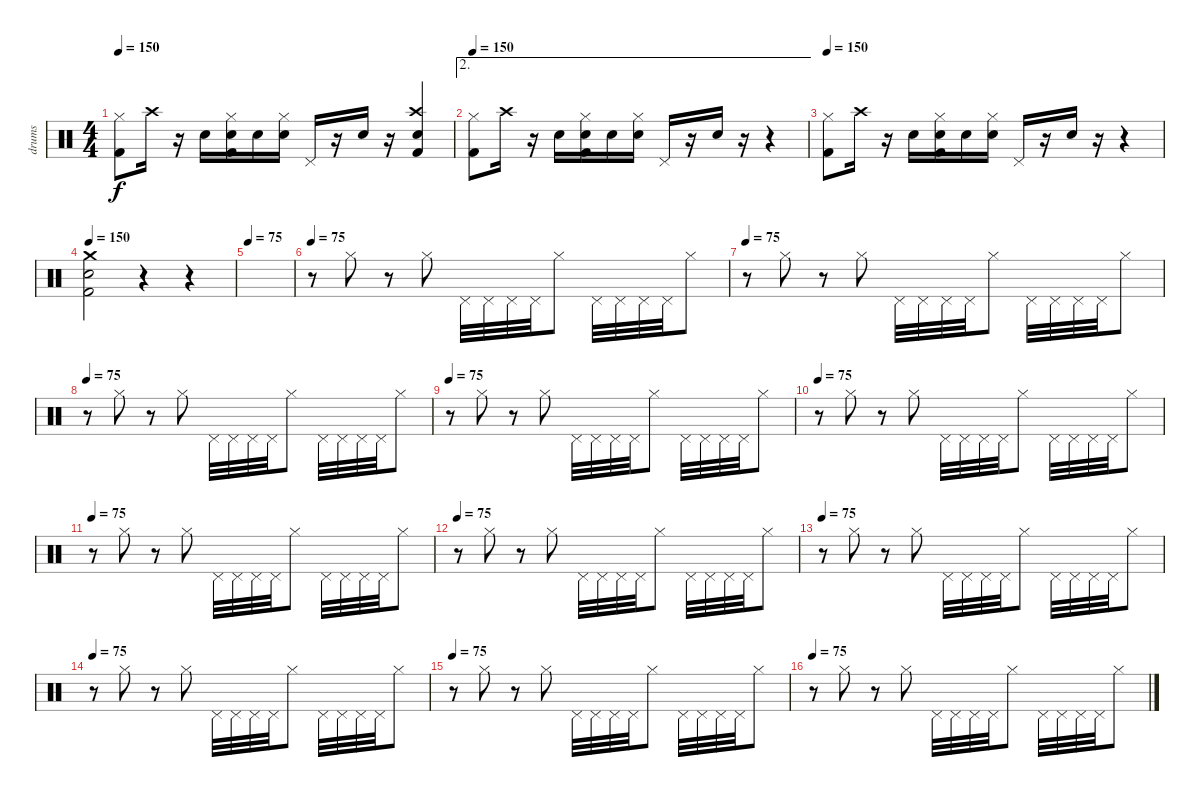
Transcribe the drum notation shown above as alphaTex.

\track ("drums" "drums") {instrument percussion}
\staff {score}
\articulation defaults
\ts (4 4)
\tempo 150
\clef neutral
\ks c
("Hi-Hat (closed)" "Kick (hit) 2").8{dy f} "Crash high (hit)".16 r.16 "Snare (hit) 2".16 ("Hi-Hat (closed)" "Snare (hit) 2" "Kick (hit) 2").16 "Snare (hit) 2".16 ("Hi-Hat (closed)" "Snare (hit) 2").16 "Pedal Hi-Hat (hit)".16 r.16 "Snare (hit) 2".16 r.16 ("Crash high (hit)" "Snare (hit) 2" "Kick (hit) 2").4 |
\ae 2
\tempo 150
("Hi-Hat (closed)" "Kick (hit) 2").8 "Crash high (hit)".16 r.16 "Snare (hit) 2".16 ("Hi-Hat (closed)" "Snare (hit) 2" "Kick (hit) 2").16 "Snare (hit) 2".16 ("Hi-Hat (closed)" "Snare (hit) 2").16 "Pedal Hi-Hat (hit)".16 r.16 "Snare (hit) 2".16 r.16 r.4 |
\tempo 150
("Hi-Hat (closed)" "Kick (hit) 2").8 "Crash high (hit)".16 r.16 "Snare (hit) 2".16 ("Hi-Hat (closed)" "Snare (hit) 2" "Kick (hit) 2").16 "Snare (hit) 2".16 ("Hi-Hat (closed)" "Snare (hit) 2").16 "Pedal Hi-Hat (hit)".16 r.16 "Snare (hit) 2".16 r.16 r.4 |
\tempo 75
\tempo 150
("Crash medium (hit)" "Snare (hit) 2" "Kick (hit) 2").2 r.4 r.4 |
\tempo 75
|
\tempo 75
r.8 "Hi-Hat (closed)".8 r.8 "Hi-Hat (closed)".8 "Pedal Hi-Hat (hit)".32 "Pedal Hi-Hat (hit)".32 "Pedal Hi-Hat (hit)".32 "Pedal Hi-Hat (hit)".32 "Hi-Hat (closed)".8 "Pedal Hi-Hat (hit)".32 "Pedal Hi-Hat (hit)".32 "Pedal Hi-Hat (hit)".32 "Pedal Hi-Hat (hit)".32 "Hi-Hat (closed)".8 |
\tempo 75
r.8 "Hi-Hat (closed)".8 r.8 "Hi-Hat (closed)".8 "Pedal Hi-Hat (hit)".32 "Pedal Hi-Hat (hit)".32 "Pedal Hi-Hat (hit)".32 "Pedal Hi-Hat (hit)".32 "Hi-Hat (closed)".8 "Pedal Hi-Hat (hit)".32 "Pedal Hi-Hat (hit)".32 "Pedal Hi-Hat (hit)".32 "Pedal Hi-Hat (hit)".32 "Hi-Hat (closed)".8 |
\tempo 75
r.8 "Hi-Hat (closed)".8 r.8 "Hi-Hat (closed)".8 "Pedal Hi-Hat (hit)".32 "Pedal Hi-Hat (hit)".32 "Pedal Hi-Hat (hit)".32 "Pedal Hi-Hat (hit)".32 "Hi-Hat (closed)".8 "Pedal Hi-Hat (hit)".32 "Pedal Hi-Hat (hit)".32 "Pedal Hi-Hat (hit)".32 "Pedal Hi-Hat (hit)".32 "Hi-Hat (closed)".8 |
\tempo 75
r.8 "Hi-Hat (closed)".8 r.8 "Hi-Hat (closed)".8 "Pedal Hi-Hat (hit)".32 "Pedal Hi-Hat (hit)".32 "Pedal Hi-Hat (hit)".32 "Pedal Hi-Hat (hit)".32 "Hi-Hat (closed)".8 "Pedal Hi-Hat (hit)".32 "Pedal Hi-Hat (hit)".32 "Pedal Hi-Hat (hit)".32 "Pedal Hi-Hat (hit)".32 "Hi-Hat (closed)".8 |
\tempo 75
r.8 "Hi-Hat (closed)".8 r.8 "Hi-Hat (closed)".8 "Pedal Hi-Hat (hit)".32 "Pedal Hi-Hat (hit)".32 "Pedal Hi-Hat (hit)".32 "Pedal Hi-Hat (hit)".32 "Hi-Hat (closed)".8 "Pedal Hi-Hat (hit)".32 "Pedal Hi-Hat (hit)".32 "Pedal Hi-Hat (hit)".32 "Pedal Hi-Hat (hit)".32 "Hi-Hat (closed)".8 |
\tempo 75
r.8 "Hi-Hat (closed)".8 r.8 "Hi-Hat (closed)".8 "Pedal Hi-Hat (hit)".32 "Pedal Hi-Hat (hit)".32 "Pedal Hi-Hat (hit)".32 "Pedal Hi-Hat (hit)".32 "Hi-Hat (closed)".8 "Pedal Hi-Hat (hit)".32 "Pedal Hi-Hat (hit)".32 "Pedal Hi-Hat (hit)".32 "Pedal Hi-Hat (hit)".32 "Hi-Hat (closed)".8 |
\tempo 75
r.8 "Hi-Hat (closed)".8 r.8 "Hi-Hat (closed)".8 "Pedal Hi-Hat (hit)".32 "Pedal Hi-Hat (hit)".32 "Pedal Hi-Hat (hit)".32 "Pedal Hi-Hat (hit)".32 "Hi-Hat (closed)".8 "Pedal Hi-Hat (hit)".32 "Pedal Hi-Hat (hit)".32 "Pedal Hi-Hat (hit)".32 "Pedal Hi-Hat (hit)".32 "Hi-Hat (closed)".8 |
\tempo 75
r.8 "Hi-Hat (closed)".8 r.8 "Hi-Hat (closed)".8 "Pedal Hi-Hat (hit)".32 "Pedal Hi-Hat (hit)".32 "Pedal Hi-Hat (hit)".32 "Pedal Hi-Hat (hit)".32 "Hi-Hat (closed)".8 "Pedal Hi-Hat (hit)".32 "Pedal Hi-Hat (hit)".32 "Pedal Hi-Hat (hit)".32 "Pedal Hi-Hat (hit)".32 "Hi-Hat (closed)".8 |
\tempo 75
r.8 "Hi-Hat (closed)".8 r.8 "Hi-Hat (closed)".8 "Pedal Hi-Hat (hit)".32 "Pedal Hi-Hat (hit)".32 "Pedal Hi-Hat (hit)".32 "Pedal Hi-Hat (hit)".32 "Hi-Hat (closed)".8 "Pedal Hi-Hat (hit)".32 "Pedal Hi-Hat (hit)".32 "Pedal Hi-Hat (hit)".32 "Pedal Hi-Hat (hit)".32 "Hi-Hat (closed)".8 |
\tempo 75
r.8 "Hi-Hat (closed)".8 r.8 "Hi-Hat (closed)".8 "Pedal Hi-Hat (hit)".32 "Pedal Hi-Hat (hit)".32 "Pedal Hi-Hat (hit)".32 "Pedal Hi-Hat (hit)".32 "Hi-Hat (closed)".8 "Pedal Hi-Hat (hit)".32 "Pedal Hi-Hat (hit)".32 "Pedal Hi-Hat (hit)".32 "Pedal Hi-Hat (hit)".32 "Hi-Hat (closed)".8 |
\tempo 75
r.8 "Hi-Hat (closed)".8 r.8 "Hi-Hat (closed)".8 "Pedal Hi-Hat (hit)".32 "Pedal Hi-Hat (hit)".32 "Pedal Hi-Hat (hit)".32 "Pedal Hi-Hat (hit)".32 "Hi-Hat (closed)".8 "Pedal Hi-Hat (hit)".32 "Pedal Hi-Hat (hit)".32 "Pedal Hi-Hat (hit)".32 "Pedal Hi-Hat (hit)".32 "Hi-Hat (closed)".8
